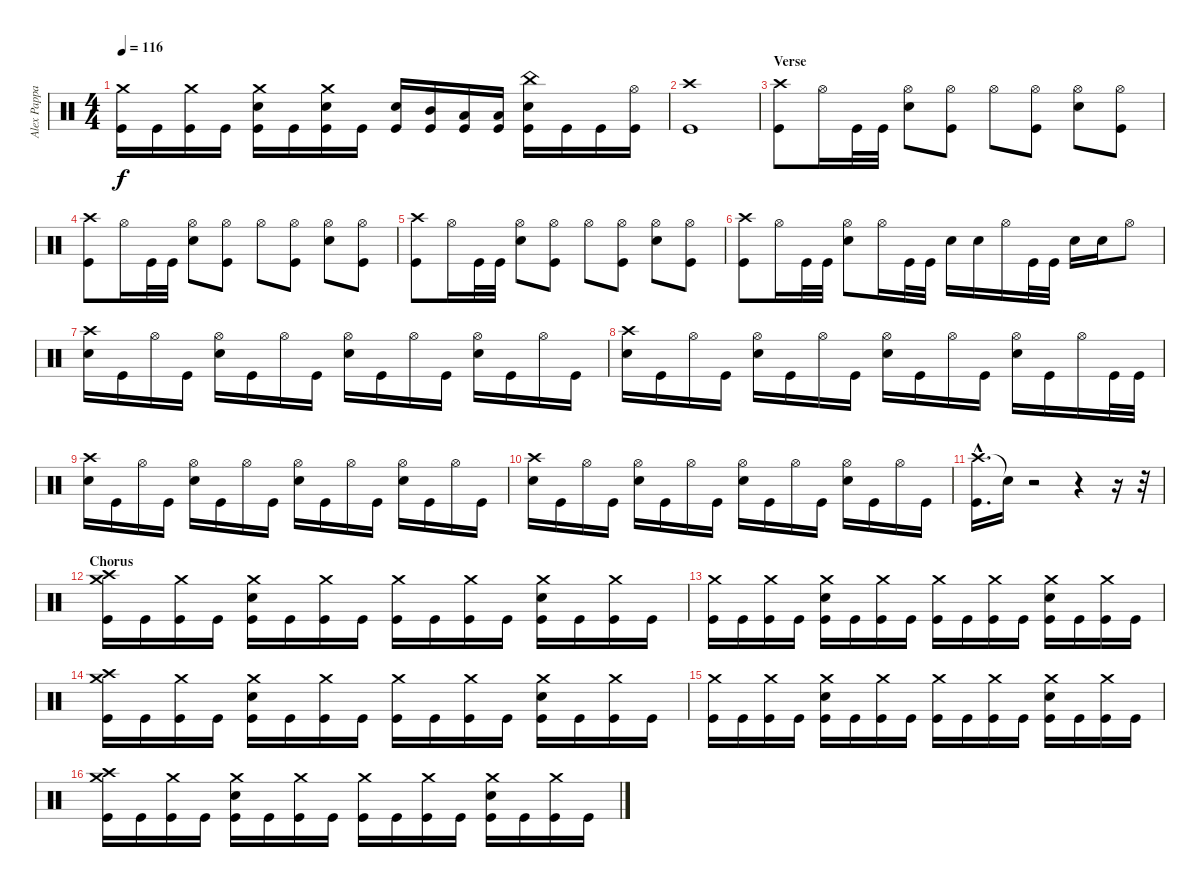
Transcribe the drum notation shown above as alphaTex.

\track ("Alex Pappas" "Alex Pappa") {instrument percussion}
\staff {score}
\articulation defaults
\ts (4 4)
\tempo 116
\clef neutral
\ks c
("Crash medium (hit)" "Kick (hit)").16{dy f} "Kick (hit)".16 ("Crash medium (hit)" "Kick (hit)").16 "Kick (hit)".16 ("Crash medium (hit)" "Electric Snare (hit)" "Kick (hit)").16 "Kick (hit)".16 ("Crash medium (hit)" "Electric Snare (hit)" "Kick (hit)").16 "Kick (hit)".16 ("Electric Snare (hit)" "Kick (hit)").16 ("Mid Tom (hit)" "Kick (hit)").16 ("Low Tom (hit)" "Kick (hit)").16 ("Low Tom (hit)" "Kick (hit)").16 ("China (hit)" "Electric Snare (hit)" "Kick (hit)").16 "Kick (hit)".16 "Kick (hit)".16 ("Hi-Hat (open)" "Kick (hit)").16 |
("Crash high (hit)" "Kick (hit)").1 |
\section ("" "Verse")
("Crash high (hit)" "Kick (hit)").8 "Hi-Hat (open)".16 "Kick (hit)".32 "Kick (hit)".32 ("Hi-Hat (open)" "Electric Snare (hit)").8 ("Hi-Hat (open)" "Kick (hit)").8 "Hi-Hat (open)".8 ("Hi-Hat (open)" "Kick (hit)").8 ("Hi-Hat (open)" "Electric Snare (hit)").8 ("Hi-Hat (open)" "Kick (hit)").8 |
("Crash high (hit)" "Kick (hit)").8 "Hi-Hat (open)".16 "Kick (hit)".32 "Kick (hit)".32 ("Hi-Hat (open)" "Electric Snare (hit)").8 ("Hi-Hat (open)" "Kick (hit)").8 "Hi-Hat (open)".8 ("Hi-Hat (open)" "Kick (hit)").8 ("Hi-Hat (open)" "Electric Snare (hit)").8 ("Hi-Hat (open)" "Kick (hit)").8 |
("Crash high (hit)" "Kick (hit)").8 "Hi-Hat (open)".16 "Kick (hit)".32 "Kick (hit)".32 ("Hi-Hat (open)" "Electric Snare (hit)").8 ("Hi-Hat (open)" "Kick (hit)").8 "Hi-Hat (open)".8 ("Hi-Hat (open)" "Kick (hit)").8 ("Hi-Hat (open)" "Electric Snare (hit)").8 ("Hi-Hat (open)" "Kick (hit)").8 |
("Crash high (hit)" "Kick (hit)").8 "Hi-Hat (open)".16 "Kick (hit)".32 "Kick (hit)".32 ("Hi-Hat (open)" "Electric Snare (hit)").8 "Hi-Hat (open)".16 "Kick (hit)".32 "Kick (hit)".32 "Electric Snare (hit)".16 "Electric Snare (hit)".16 "Hi-Hat (open)".16 "Kick (hit)".32 "Kick (hit)".32 "Electric Snare (hit)".16 "Electric Snare (hit)".16 "Hi-Hat (open)".8 |
("Crash high (hit)" "Electric Snare (hit)").16 "Kick (hit)".16 "Hi-Hat (open)".16 "Kick (hit)".16 ("Hi-Hat (open)" "Electric Snare (hit)").16 "Kick (hit)".16 "Hi-Hat (open)".16 "Kick (hit)".16 ("Hi-Hat (open)" "Electric Snare (hit)").16 "Kick (hit)".16 "Hi-Hat (open)".16 "Kick (hit)".16 ("Hi-Hat (open)" "Electric Snare (hit)").16 "Kick (hit)".16 "Hi-Hat (open)".16 "Kick (hit)".16 |
("Crash high (hit)" "Electric Snare (hit)").16 "Kick (hit)".16 "Hi-Hat (open)".16 "Kick (hit)".16 ("Hi-Hat (open)" "Electric Snare (hit)").16 "Kick (hit)".16 "Hi-Hat (open)".16 "Kick (hit)".16 ("Hi-Hat (open)" "Electric Snare (hit)").16 "Kick (hit)".16 "Hi-Hat (open)".16 "Kick (hit)".16 ("Hi-Hat (open)" "Electric Snare (hit)").16 "Kick (hit)".16 "Hi-Hat (open)".16 "Kick (hit)".32 "Kick (hit)".32 |
("Crash high (hit)" "Electric Snare (hit)").16 "Kick (hit)".16 "Hi-Hat (open)".16 "Kick (hit)".16 ("Hi-Hat (open)" "Electric Snare (hit)").16 "Kick (hit)".16 "Hi-Hat (open)".16 "Kick (hit)".16 ("Hi-Hat (open)" "Electric Snare (hit)").16 "Kick (hit)".16 "Hi-Hat (open)".16 "Kick (hit)".16 ("Hi-Hat (open)" "Electric Snare (hit)").16 "Kick (hit)".16 "Hi-Hat (open)".16 "Kick (hit)".16 |
("Crash high (hit)" "Electric Snare (hit)").16 "Kick (hit)".16 "Hi-Hat (open)".16 "Kick (hit)".16 ("Hi-Hat (open)" "Electric Snare (hit)").16 "Kick (hit)".16 "Hi-Hat (open)".16 "Kick (hit)".16 ("Hi-Hat (open)" "Electric Snare (hit)").16 "Kick (hit)".16 "Hi-Hat (open)".16 "Kick (hit)".16 ("Hi-Hat (open)" "Electric Snare (hit)").16 "Kick (hit)".16 "Hi-Hat (open)".16 "Kick (hit)".16 |
("Crash high (hit)"{hac} "Kick (hit)"{hac}).16{d} "Snare (hit)"{t}.16{volume 0} r.2 r.4 r.16 r.32 |
\section ("" "Chorus")
("Crash high (hit)" "Crash medium (hit)" "Kick (hit)").16{volume 16} "Kick (hit)".16 ("Crash medium (hit)" "Kick (hit)").16 "Kick (hit)".16 ("Crash medium (hit)" "Electric Snare (hit)" "Kick (hit)").16 "Kick (hit)".16 ("Crash medium (hit)" "Kick (hit)").16 "Kick (hit)".16 ("Crash medium (hit)" "Kick (hit)").16 "Kick (hit)".16 ("Crash medium (hit)" "Kick (hit)").16 "Kick (hit)".16 ("Crash medium (hit)" "Electric Snare (hit)" "Kick (hit)").16 "Kick (hit)".16 ("Crash medium (hit)" "Kick (hit)").16 "Kick (hit)".16 |
("Crash medium (hit)" "Kick (hit)").16 "Kick (hit)".16 ("Crash medium (hit)" "Kick (hit)").16 "Kick (hit)".16 ("Crash medium (hit)" "Electric Snare (hit)" "Kick (hit)").16 "Kick (hit)".16 ("Crash medium (hit)" "Kick (hit)").16 "Kick (hit)".16 ("Crash medium (hit)" "Kick (hit)").16 "Kick (hit)".16 ("Crash medium (hit)" "Kick (hit)").16 "Kick (hit)".16 ("Crash medium (hit)" "Electric Snare (hit)" "Kick (hit)").16 "Kick (hit)".16 ("Crash medium (hit)" "Kick (hit)").16 "Kick (hit)".16 |
("Crash medium (hit)" "Crash high (hit)" "Kick (hit)").16 "Kick (hit)".16 ("Crash medium (hit)" "Kick (hit)").16 "Kick (hit)".16 ("Crash medium (hit)" "Electric Snare (hit)" "Kick (hit)").16 "Kick (hit)".16 ("Crash medium (hit)" "Kick (hit)").16 "Kick (hit)".16 ("Crash medium (hit)" "Kick (hit)").16 "Kick (hit)".16 ("Crash medium (hit)" "Kick (hit)").16 "Kick (hit)".16 ("Crash medium (hit)" "Electric Snare (hit)" "Kick (hit)").16 "Kick (hit)".16 ("Crash medium (hit)" "Kick (hit)").16 "Kick (hit)".16 |
("Crash medium (hit)" "Kick (hit)").16 "Kick (hit)".16 ("Crash medium (hit)" "Kick (hit)").16 "Kick (hit)".16 ("Crash medium (hit)" "Electric Snare (hit)" "Kick (hit)").16 "Kick (hit)".16 ("Crash medium (hit)" "Kick (hit)").16 "Kick (hit)".16 ("Crash medium (hit)" "Kick (hit)").16 "Kick (hit)".16 ("Crash medium (hit)" "Kick (hit)").16 "Kick (hit)".16 ("Crash medium (hit)" "Electric Snare (hit)" "Kick (hit)").16 "Kick (hit)".16 ("Crash medium (hit)" "Kick (hit)").16 "Kick (hit)".16 |
("Crash medium (hit)" "Crash high (hit)" "Kick (hit)").16 "Kick (hit)".16 ("Crash medium (hit)" "Kick (hit)").16 "Kick (hit)".16 ("Crash medium (hit)" "Electric Snare (hit)" "Kick (hit)").16 "Kick (hit)".16 ("Crash medium (hit)" "Kick (hit)").16 "Kick (hit)".16 ("Crash medium (hit)" "Kick (hit)").16 "Kick (hit)".16 ("Crash medium (hit)" "Kick (hit)").16 "Kick (hit)".16 ("Crash medium (hit)" "Electric Snare (hit)" "Kick (hit)").16 "Kick (hit)".16 ("Crash medium (hit)" "Kick (hit)").16 "Kick (hit)".16
